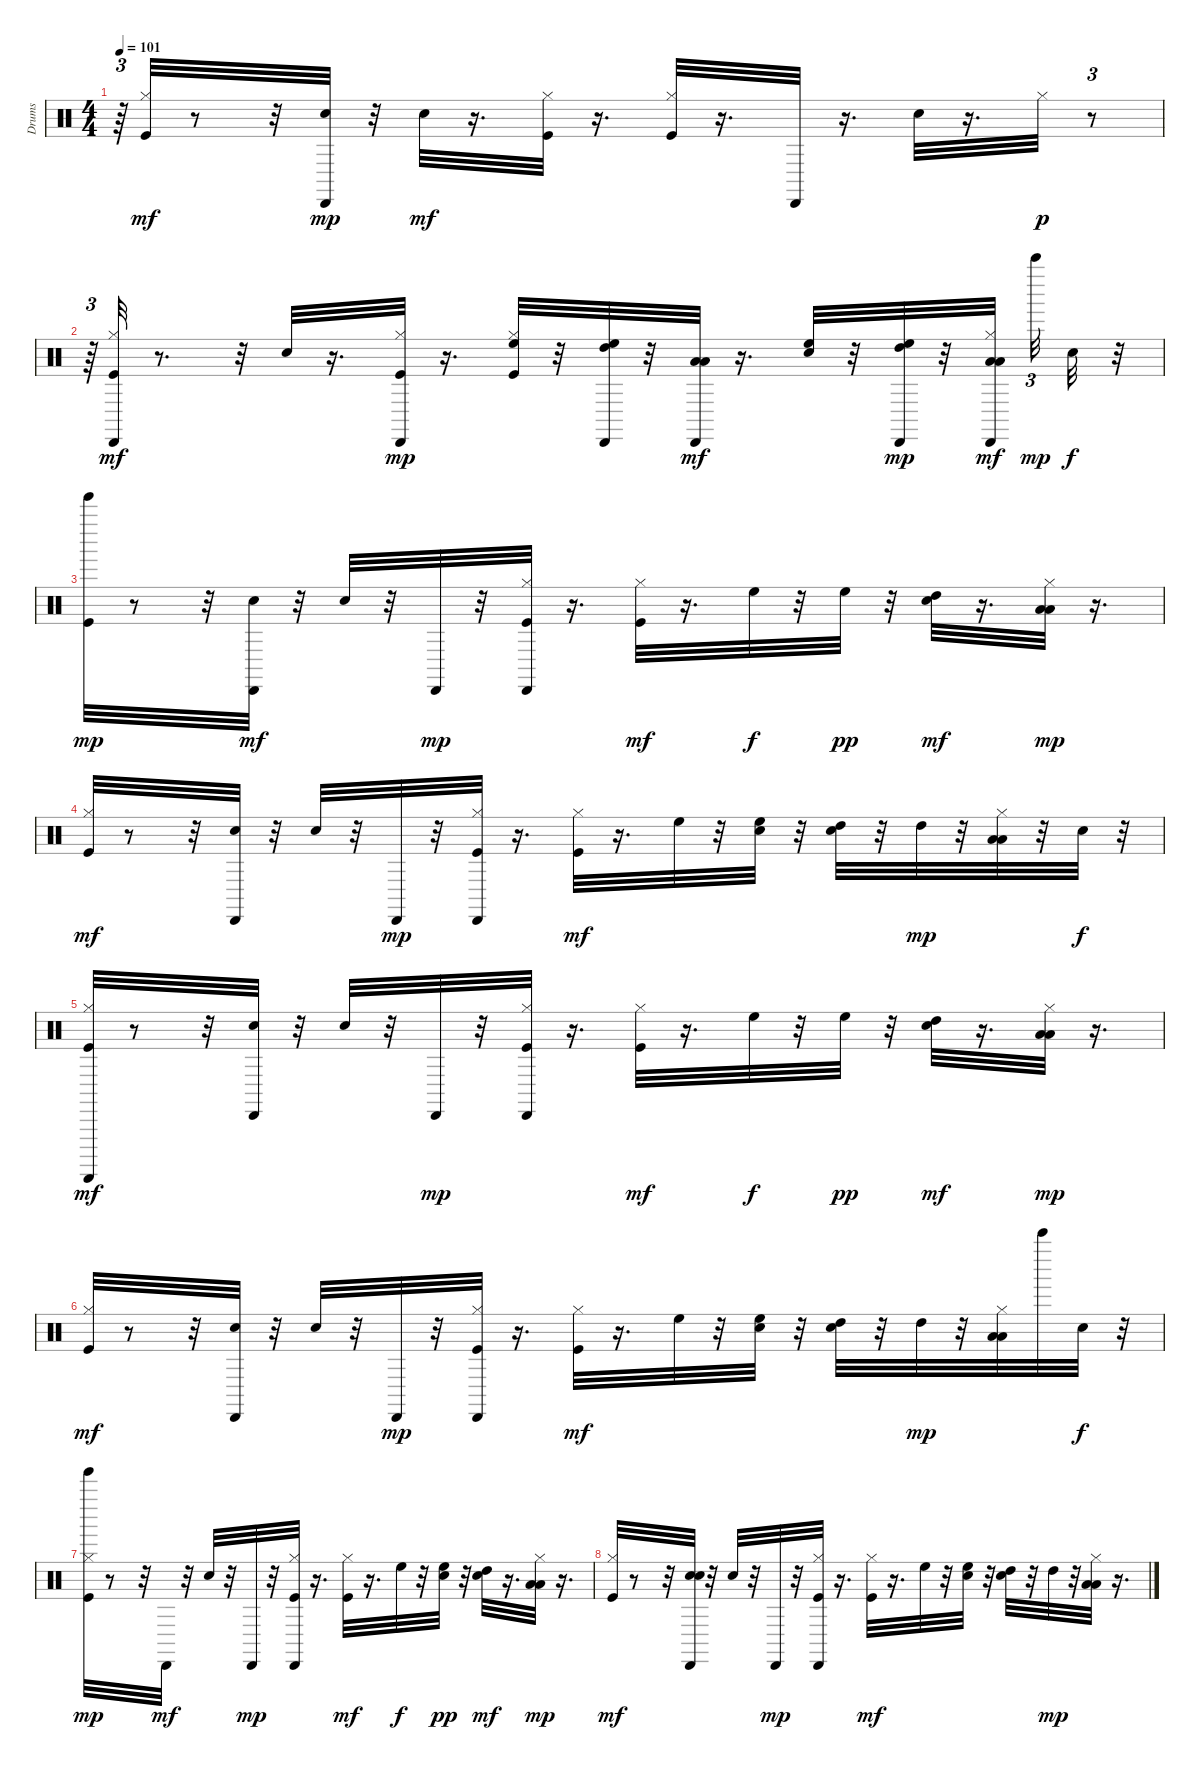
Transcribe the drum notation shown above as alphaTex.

\track ("Drums" "Drums") {instrument percussion}
\staff {score}
\articulation defaults
\ts (4 4)
\tempo 101
\clef neutral
\ks c
r.64{tu (3 2) dy mp} ("Kick (hit)" "Hi-Hat (closed)").32{dy mf} r.8 r.32 ("Hand Clap (hit)" "Cabasa (hit)").32{dy mp} r.32 "Snare (hit) 2".32{dy mf} r.16{d} ("Kick (hit)" "Hi-Hat (closed)").32 r.16{d} ("Kick (hit)" "Hi-Hat (closed)").32 r.16{d} "Cabasa (hit)".32 r.16{d} "Snare (hit) 2".32 r.16{d} "Hi-Hat (closed)".32{dy p} r.8{tu (3 2)} |
r.64{tu (3 2)} ("Kick (hit)" "Hi-Hat (closed)" "Cabasa (hit)").32{dy mf} r.8{d} r.32 "Snare (hit) 2".32 r.16{d} ("Kick (hit)" "Hi-Hat (closed)" "Cabasa (hit)").32{dy mp} r.16{d} ("Kick (hit)" "Hi-Hat (closed)" "High Floor Tom (hit)").32 r.32 ("High Tom (hit)" "High Floor Tom (hit)" "Cabasa (hit)").32 r.32 ("Low Floor Tom (hit)" "Low Tom (hit)" "Cabasa (hit)").32{dy mf} r.16{d} ("Snare (hit) 2" "High Floor Tom (hit)").32 r.32 ("High Tom (hit)" "High Floor Tom (hit)" "Cabasa (hit)").32{dy mp} r.32 ("Low Floor Tom (hit)" "Hi-Hat (closed)" "Low Tom (hit)" "Cabasa (hit)").32{dy mf beam splitsecondary} "Bell Tree (hit)".32{tu (3 2) dy mp} "Hand Clap (hit)".32{dy f} r.32 |
("Kick (hit)" "Tinkle Bell (hit)").32{dy mp} r.8 r.32 ("Hand Clap (hit)" "Cabasa (hit)").32{dy mf} r.32 "Snare (hit) 2".32 r.32 "Cabasa (hit)".32{dy mp} r.32 ("Kick (hit)" "Hi-Hat (closed)" "Cabasa (hit)").32 r.16{d} ("Kick (hit)" "Hi-Hat (closed)").32{dy mf} r.16{d} "High Floor Tom (hit)".32{dy f} r.32 "High Floor Tom (hit)".32{dy pp} r.32 ("Snare (hit) 2" "High Tom (hit)").32{dy mf} r.16{d} ("Low Floor Tom (hit)" "Hi-Hat (closed)" "Low Tom (hit)").32{dy mp} r.16{d} |
("Kick (hit)" "Hi-Hat (closed)").32{dy mf} r.8 r.32 ("Hand Clap (hit)" "Cabasa (hit)").32 r.32 "Snare (hit) 2".32 r.32 "Cabasa (hit)".32{dy mp} r.32 ("Kick (hit)" "Hi-Hat (closed)" "Cabasa (hit)").32 r.16{d} ("Kick (hit)" "Hi-Hat (closed)").32{dy mf} r.16{d} "High Floor Tom (hit)".32 r.32 ("Hand Clap (hit)" "High Floor Tom (hit)").32 r.32 ("Snare (hit) 2" "High Tom (hit)").32 r.32 "High Tom (hit)".32{dy mp} r.32 ("Low Floor Tom (hit)" "Hi-Hat (closed)" "Low Tom (hit)").32 r.32 "Hand Clap (hit)".32{dy f} r.32 |
("Kick (hit)" "Hi-Hat (closed)" "Guiro (scrap-return)").32{dy mf} r.8 r.32 ("Hand Clap (hit)" "Cabasa (hit)").32 r.32 "Snare (hit) 2".32 r.32 "Cabasa (hit)".32{dy mp} r.32 ("Kick (hit)" "Hi-Hat (closed)" "Cabasa (hit)").32 r.16{d} ("Kick (hit)" "Hi-Hat (closed)").32{dy mf} r.16{d} "High Floor Tom (hit)".32{dy f} r.32 "High Floor Tom (hit)".32{dy pp} r.32 ("Snare (hit) 2" "High Tom (hit)").32{dy mf} r.16{d} ("Low Floor Tom (hit)" "Hi-Hat (closed)" "Low Tom (hit)").32{dy mp} r.16{d} |
("Kick (hit)" "Hi-Hat (closed)").32{dy mf} r.8 r.32 ("Hand Clap (hit)" "Cabasa (hit)").32 r.32 "Snare (hit) 2".32 r.32 "Cabasa (hit)".32{dy mp} r.32 ("Kick (hit)" "Hi-Hat (closed)" "Cabasa (hit)").32 r.16{d} ("Kick (hit)" "Hi-Hat (closed)").32{dy mf} r.16{d} "High Floor Tom (hit)".32 r.32 ("Hand Clap (hit)" "High Floor Tom (hit)").32 r.32 ("Snare (hit) 2" "High Tom (hit)").32 r.32 "High Tom (hit)".32{dy mp} r.32 ("Low Floor Tom (hit)" "Hi-Hat (closed)" "Low Tom (hit)").32 "Bell Tree (hit)".32 "Hand Clap (hit)".32{dy f} r.32 |
("Kick (hit)" "Hi-Hat (closed)" "Tinkle Bell (hit)").32{dy mp} r.8 r.32 "Cabasa (hit)".32{dy mf} r.32 "Snare (hit) 2".32 r.32 "Cabasa (hit)".32{dy mp} r.32 ("Kick (hit)" "Hi-Hat (closed)" "Cabasa (hit)").32 r.16{d} ("Kick (hit)" "Hi-Hat (closed)").32{dy mf} r.16{d} "High Floor Tom (hit)".32{dy f} r.32 ("Hand Clap (hit)" "High Floor Tom (hit)").32{dy pp} r.32 ("Snare (hit) 2" "High Tom (hit)").32{dy mf} r.16{d} ("Low Floor Tom (hit)" "Hi-Hat (closed)" "Low Tom (hit)").32{dy mp} r.16{d} |
("Kick (hit)" "Hi-Hat (closed)").32{dy mf} r.8 r.32 ("Hand Clap (hit)" "Hand Clap (hit)" "Cabasa (hit)").32 r.32 "Snare (hit) 2".32 r.32 "Cabasa (hit)".32{dy mp} r.32 ("Kick (hit)" "Hi-Hat (closed)" "Cabasa (hit)").32 r.16{d} ("Kick (hit)" "Hi-Hat (closed)").32{dy mf} r.16{d} "High Floor Tom (hit)".32 r.32 ("Hand Clap (hit)" "High Floor Tom (hit)").32 r.32 ("Snare (hit) 2" "High Tom (hit)").32 r.32 "High Tom (hit)".32{dy mp} r.32 ("Low Floor Tom (hit)" "Hi-Hat (closed)" "Low Tom (hit)").32 r.16{d}
